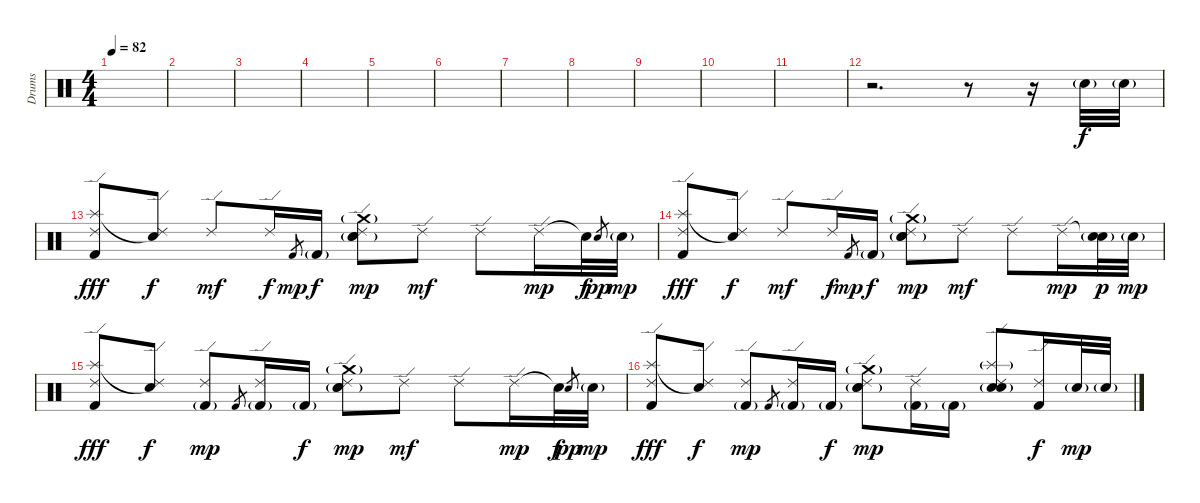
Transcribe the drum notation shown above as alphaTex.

\track ("Drums" "Drums") {instrument percussion}
\staff {score}
\articulation defaults
\ts (4 4)
\tempo 82
\clef neutral
\ks c
|
|
|
|
|
|
|
|
|
|
|
r.2{d} r.8 r.16 "Electric Snare (hit)"{g}.32 "Electric Snare (hit)"{g}.32 |
("Ride (edge) 2" "Splash (hit)" "Kick (hit) 2").8{dy fff} ("Ride (edge) 2" "Snare (hit)"{t}).8{dy f} "Ride (edge) 2".8{dy mf} "Ride (edge) 2".16{dy f} "Kick (hit) 2".8{gr dy mp} "Kick (hit) 2"{g}.16{dy f} ("Ride (edge) 2" "Crash medium (hit)"{g} "Snare (hit) 2"{g} "Electric Snare (hit)").8{dy mp} "Ride (edge) 2".8{dy mf} "Ride (edge) 2".8 "Ride (edge) 2".16{dy mp} "Snare (hit)"{t}.32{dy f} "Electric Snare (hit)".8{gr dy pp} "Electric Snare (hit)"{g}.32{dy mp} |
("Ride (edge) 2" "Splash (hit)" "Kick (hit) 2").8{dy fff} ("Ride (edge) 2" "Snare (hit)"{t}).8{dy f} "Ride (edge) 2".8{dy mf} "Ride (edge) 2".16{dy f} "Kick (hit) 2".8{gr dy mp} "Kick (hit) 2"{g}.16{dy f} ("Ride (edge) 2" "Crash medium (hit)"{g} "Snare (hit) 2"{g} "Electric Snare (hit)").8{dy mp} "Ride (edge) 2".8{dy mf} "Ride (edge) 2".8 "Ride (edge) 2".16{dy mp} ("Snare (hit)"{t} "Electric Snare (hit)"{g}).32{dy p} "Electric Snare (hit)"{g}.32{dy mp} |
("Ride (edge) 2" "Splash (hit)" "Kick (hit) 2").8{dy fff} ("Ride (edge) 2" "Snare (hit)"{t}).8{dy f} ("Ride (edge) 2" "Kick (hit) 2"{g}).8{dy mp} "Kick (hit) 2".8{gr} ("Ride (edge) 2" "Kick (hit) 2"{g}).16 "Kick (hit) 2"{g}.16{dy f} ("Ride (edge) 2" "Crash medium (hit)"{g} "Snare (hit) 2"{g} "Electric Snare (hit)").8{dy mp} "Ride (edge) 2".8{dy mf} "Ride (edge) 2".8 "Ride (edge) 2".16{dy mp} "Snare (hit)"{t}.32{dy f} "Electric Snare (hit)".8{gr dy pp} "Electric Snare (hit)"{g}.32{dy mp} |
("Ride (edge) 2" "Splash (hit)" "Kick (hit) 2").8{dy fff} ("Ride (edge) 2" "Snare (hit)"{t}).8{dy f} ("Ride (edge) 2" "Kick (hit) 2"{g}).8{dy mp} "Kick (hit) 2".8{gr} ("Ride (edge) 2" "Kick (hit) 2"{g}).16 "Kick (hit) 2"{g}.16{dy f} ("Ride (edge) 2" "Crash medium (hit)"{g} "Snare (hit) 2"{g} "Electric Snare (hit)").8{dy mp} ("Ride (edge) 2" "Kick (hit) 2"{g}).16 "Kick (hit) 2"{g}.16 ("Ride (edge) 2" "Splash (hit)"{g} "Snare (hit) 2"{g} "Electric Snare (hit)").8 ("Ride (edge) 2" "Kick (hit) 2").16{dy f} "Electric Snare (hit)"{g}.32{dy mp} "Electric Snare (hit)"{g}.32
